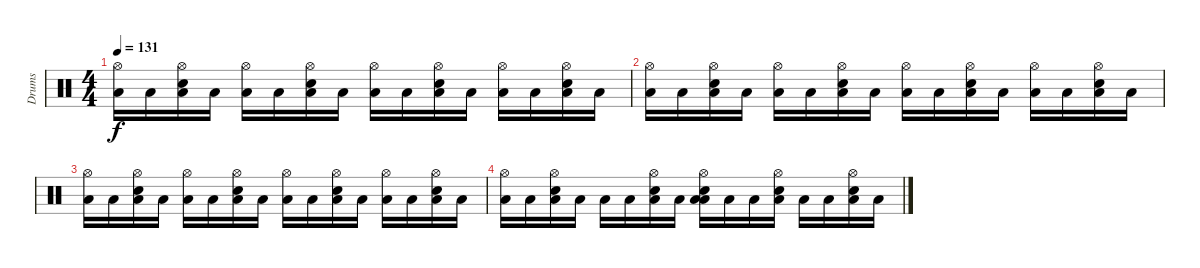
\track ("Drums" "Drums") {instrument percussion}
\staff {score}
\articulation defaults
\ts (4 4)
\tempo 131
\clef neutral
\ks c
("Low Tom (hit)" "Hi-Hat (open)").16{dy f volume 1} "Low Tom (hit)".16 ("Electric Snare (hit)" "Low Tom (hit)" "Hi-Hat (open)").16 "Low Tom (hit)".16 ("Low Tom (hit)" "Hi-Hat (open)").16 "Low Tom (hit)".16 ("Electric Snare (hit)" "Low Tom (hit)" "Hi-Hat (open)").16 "Low Tom (hit)".16 ("Low Tom (hit)" "Hi-Hat (open)").16 "Low Tom (hit)".16 ("Electric Snare (hit)" "Low Tom (hit)" "Hi-Hat (open)").16 "Low Tom (hit)".16 ("Low Tom (hit)" "Hi-Hat (open)").16 "Low Tom (hit)".16 ("Electric Snare (hit)" "Low Tom (hit)" "Hi-Hat (open)").16 "Low Tom (hit)".16 |
("Low Tom (hit)" "Hi-Hat (open)").16 "Low Tom (hit)".16 ("Electric Snare (hit)" "Low Tom (hit)" "Hi-Hat (open)").16 "Low Tom (hit)".16 ("Low Tom (hit)" "Hi-Hat (open)").16 "Low Tom (hit)".16 ("Electric Snare (hit)" "Low Tom (hit)" "Hi-Hat (open)").16 "Low Tom (hit)".16 ("Low Tom (hit)" "Hi-Hat (open)").16 "Low Tom (hit)".16 ("Electric Snare (hit)" "Low Tom (hit)" "Hi-Hat (open)").16 "Low Tom (hit)".16 ("Low Tom (hit)" "Hi-Hat (open)").16 "Low Tom (hit)".16 ("Electric Snare (hit)" "Low Tom (hit)" "Hi-Hat (open)").16 "Low Tom (hit)".16 |
("Hi-Hat (open)" "Low Tom (hit)").16 "Low Tom (hit)".16 ("Hi-Hat (open)" "Low Tom (hit)" "Electric Snare (hit)").16 "Low Tom (hit)".16 ("Hi-Hat (open)" "Low Tom (hit)").16 "Low Tom (hit)".16 ("Hi-Hat (open)" "Low Tom (hit)" "Electric Snare (hit)").16 "Low Tom (hit)".16 ("Hi-Hat (open)" "Low Tom (hit)").16 "Low Tom (hit)".16 ("Hi-Hat (open)" "Low Tom (hit)" "Electric Snare (hit)").16 "Low Tom (hit)".16 ("Hi-Hat (open)" "Low Tom (hit)").16 "Low Tom (hit)".16 ("Hi-Hat (open)" "Low Tom (hit)" "Electric Snare (hit)").16 "Low Tom (hit)".16 |
("Hi-Hat (open)" "Low Tom (hit)").16 "Low Tom (hit)".16 ("Hi-Hat (open)" "Electric Snare (hit)" "Low Tom (hit)").16 "Low Tom (hit)".16 "Low Tom (hit)".16 "Low Tom (hit)".16 ("Hi-Hat (open)" "Electric Snare (hit)" "Low Tom (hit)").16 "Low Tom (hit)".16 ("Hi-Hat (open)" "Low Tom (hit)" "Electric Snare (hit)" "Low Tom (hit)").16 "Low Tom (hit)".16 "Low Tom (hit)".16 ("Hi-Hat (open)" "Electric Snare (hit)" "Low Tom (hit)").16 "Low Tom (hit)".16 "Low Tom (hit)".16 ("Hi-Hat (open)" "Electric Snare (hit)" "Low Tom (hit)").16 "Low Tom (hit)".16
